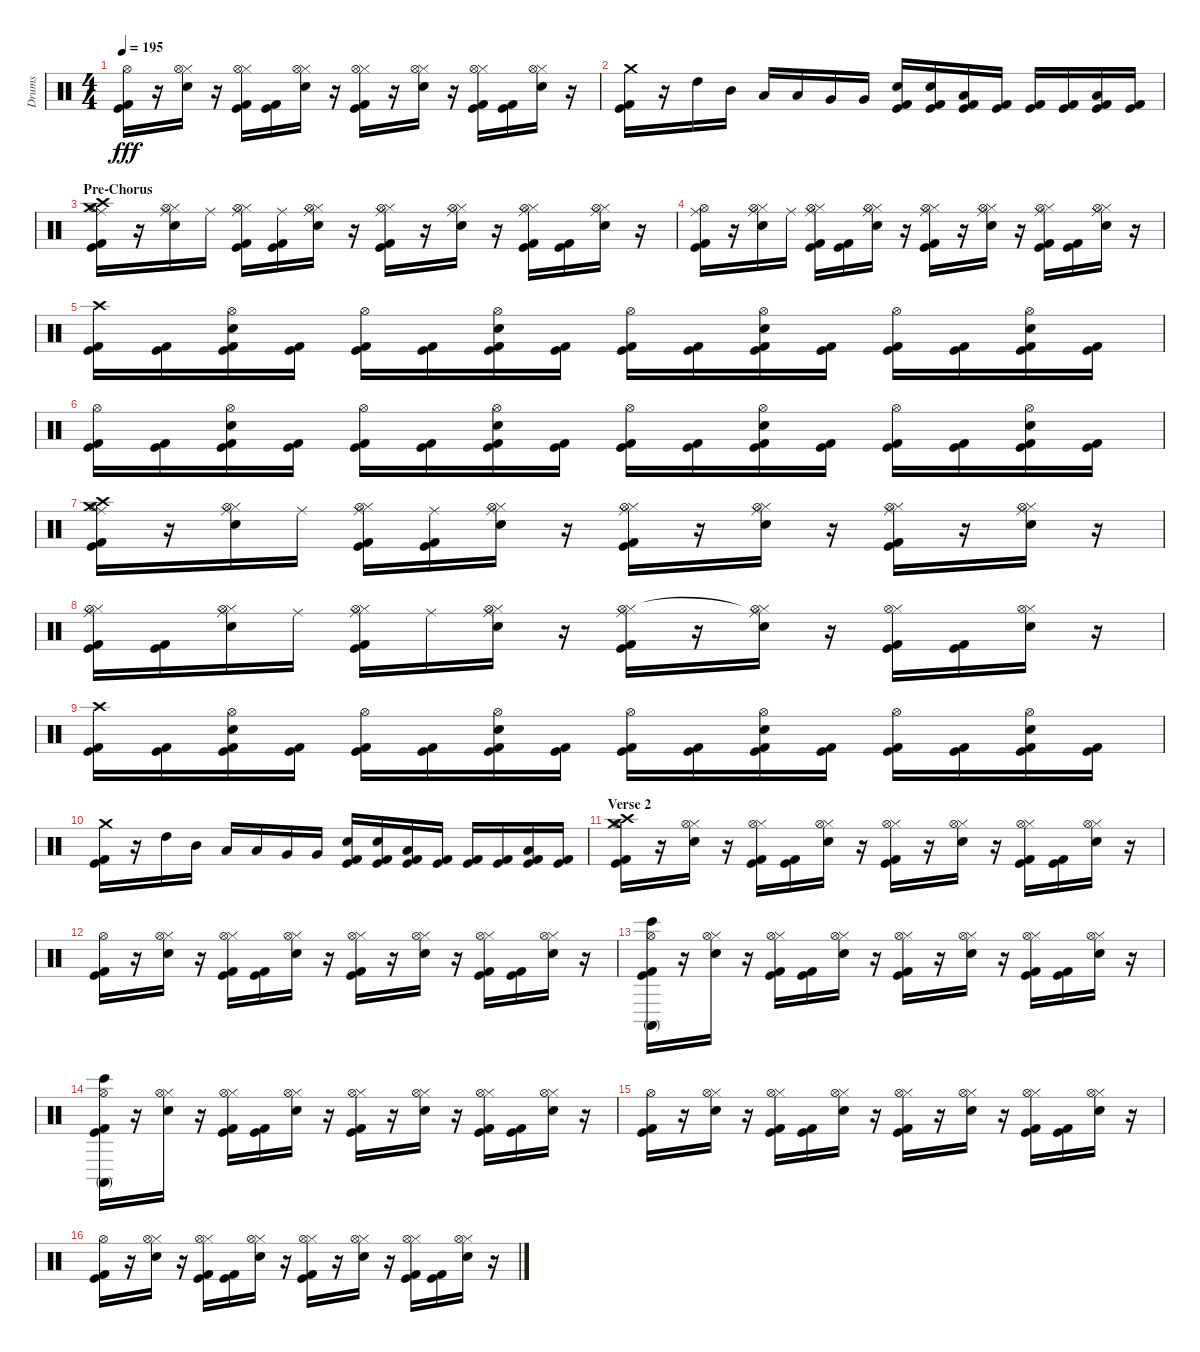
\track ("Drums" "Drums") {instrument percussion}
\staff {score}
\articulation defaults
\ts (4 4)
\tempo 195
\clef neutral
\ks c
("Kick (hit) 2" "Kick (hit)" "Hi-Hat (open)").16{dy fff} r.16 ("Snare (hit) 2" "Hi-Hat (closed)" "Hi-Hat (open)").16 r.16 ("Kick (hit) 2" "Kick (hit)" "Hi-Hat (closed)" "Hi-Hat (open)").16 ("Kick (hit) 2" "Kick (hit)").16 ("Snare (hit) 2" "Hi-Hat (closed)" "Hi-Hat (open)").16 r.16 ("Kick (hit) 2" "Kick (hit)" "Hi-Hat (closed)" "Hi-Hat (open)").16 r.16 ("Snare (hit) 2" "Hi-Hat (closed)" "Hi-Hat (open)").16 r.16 ("Kick (hit) 2" "Kick (hit)" "Hi-Hat (closed)" "Hi-Hat (open)").16 ("Kick (hit) 2" "Kick (hit)").16 ("Snare (hit) 2" "Hi-Hat (closed)" "Hi-Hat (open)").16 r.16 |
("Kick (hit) 2" "Kick (hit)" "Crash medium (hit)").16 r.16 "High Tom (hit)".16 "Mid Tom (hit)".16 "Low Tom (hit)".16 "Low Tom (hit)".16 "Very Low Tom (hit)".16 "Very Low Tom (hit)".16 ("Kick (hit) 2" "Kick (hit)" "Snare (hit) 2").16 ("Kick (hit) 2" "Kick (hit)" "Snare (hit) 2").16 ("Kick (hit) 2" "Kick (hit)" "Low Tom (hit)").16 ("Kick (hit) 2" "Kick (hit)").16 ("Kick (hit) 2" "Kick (hit)").16 ("Kick (hit) 2" "Kick (hit)").16 ("Kick (hit) 2" "Kick (hit)" "Low Floor Tom (hit)").16 ("Kick (hit) 2" "Kick (hit)").16 |
\section ("" "Pre-Chorus")
("Kick (hit) 2" "Kick (hit)" "Crash high (hit)" "Ride (middle)" "Hi-Hat (open)" "Crash medium (hit)").16 r.16 ("Snare (hit) 2" "Hi-Hat (closed)" "Ride (middle)" "Hi-Hat (open)").16 "Ride (middle)".16 ("Kick (hit) 2" "Kick (hit)" "Hi-Hat (closed)" "Ride (middle)" "Hi-Hat (open)").16 ("Kick (hit) 2" "Kick (hit)" "Ride (middle)").16 ("Snare (hit) 2" "Hi-Hat (closed)" "Ride (middle)" "Hi-Hat (open)").16 r.16 ("Kick (hit) 2" "Kick (hit)" "Hi-Hat (closed)" "Ride (middle)" "Hi-Hat (open)").16 r.16 ("Snare (hit) 2" "Hi-Hat (closed)" "Ride (middle)" "Hi-Hat (open)").16 r.16 ("Kick (hit) 2" "Kick (hit)" "Hi-Hat (closed)" "Ride (middle)" "Hi-Hat (open)").16 ("Kick (hit) 2" "Kick (hit)").16 ("Snare (hit) 2" "Hi-Hat (closed)" "Ride (middle)" "Hi-Hat (open)").16 r.16 |
("Kick (hit) 2" "Kick (hit)" "Ride (middle)" "Hi-Hat (open)").16 r.16 ("Snare (hit) 2" "Hi-Hat (closed)" "Ride (middle)" "Hi-Hat (open)").16 "Ride (middle)".16 ("Kick (hit) 2" "Kick (hit)" "Hi-Hat (closed)" "Ride (middle)" "Hi-Hat (open)").16 ("Kick (hit) 2" "Kick (hit)").16 ("Snare (hit) 2" "Hi-Hat (closed)" "Ride (middle)" "Hi-Hat (open)").16 r.16 ("Kick (hit) 2" "Kick (hit)" "Hi-Hat (closed)" "Ride (middle)" "Hi-Hat (open)").16 r.16 ("Snare (hit) 2" "Hi-Hat (closed)" "Ride (middle)" "Hi-Hat (open)").16 r.16 ("Kick (hit) 2" "Kick (hit)" "Hi-Hat (closed)" "Ride (middle)" "Hi-Hat (open)").16 ("Kick (hit) 2" "Kick (hit)").16 ("Snare (hit) 2" "Hi-Hat (closed)" "Ride (middle)" "Hi-Hat (open)").16 r.16 |
("Kick (hit) 2" "Kick (hit)" "Crash high (hit)").16 ("Kick (hit) 2" "Kick (hit)").16 ("Kick (hit) 2" "Kick (hit)" "Snare (hit) 2" "Hi-Hat (open)").16 ("Kick (hit) 2" "Kick (hit)").16 ("Kick (hit) 2" "Kick (hit)" "Hi-Hat (open)").16 ("Kick (hit) 2" "Kick (hit)").16 ("Kick (hit) 2" "Kick (hit)" "Snare (hit) 2" "Hi-Hat (open)").16 ("Kick (hit) 2" "Kick (hit)").16 ("Kick (hit) 2" "Kick (hit)" "Hi-Hat (open)").16 ("Kick (hit) 2" "Kick (hit)").16 ("Kick (hit) 2" "Kick (hit)" "Snare (hit) 2" "Hi-Hat (open)").16 ("Kick (hit) 2" "Kick (hit)").16 ("Kick (hit) 2" "Kick (hit)" "Hi-Hat (open)").16 ("Kick (hit) 2" "Kick (hit)").16 ("Kick (hit) 2" "Kick (hit)" "Snare (hit) 2" "Hi-Hat (open)").16 ("Kick (hit) 2" "Kick (hit)").16 |
("Kick (hit) 2" "Kick (hit)" "Hi-Hat (open)").16 ("Kick (hit) 2" "Kick (hit)").16 ("Kick (hit) 2" "Kick (hit)" "Snare (hit) 2" "Hi-Hat (open)").16 ("Kick (hit) 2" "Kick (hit)").16 ("Kick (hit) 2" "Kick (hit)" "Hi-Hat (open)").16 ("Kick (hit) 2" "Kick (hit)").16 ("Kick (hit) 2" "Kick (hit)" "Snare (hit) 2" "Hi-Hat (open)").16 ("Kick (hit) 2" "Kick (hit)").16 ("Kick (hit) 2" "Kick (hit)" "Hi-Hat (open)").16 ("Kick (hit) 2" "Kick (hit)").16 ("Kick (hit) 2" "Kick (hit)" "Snare (hit) 2" "Hi-Hat (open)").16 ("Kick (hit) 2" "Kick (hit)").16 ("Kick (hit) 2" "Kick (hit)" "Hi-Hat (open)").16 ("Kick (hit) 2" "Kick (hit)").16 ("Kick (hit) 2" "Kick (hit)" "Snare (hit) 2" "Hi-Hat (open)").16 ("Kick (hit) 2" "Kick (hit)").16 |
("Kick (hit) 2" "Kick (hit)" "Crash high (hit)" "Ride (middle)" "Hi-Hat (open)" "Crash medium (hit)").16 r.16 ("Snare (hit) 2" "Hi-Hat (closed)" "Ride (middle)" "Hi-Hat (open)").16 "Ride (middle)".16 ("Kick (hit) 2" "Kick (hit)" "Hi-Hat (closed)" "Ride (middle)" "Hi-Hat (open)").16 ("Kick (hit) 2" "Kick (hit)" "Ride (middle)").16 ("Snare (hit) 2" "Hi-Hat (closed)" "Ride (middle)" "Hi-Hat (open)").16 r.16 ("Kick (hit) 2" "Kick (hit)" "Hi-Hat (closed)" "Ride (middle)" "Hi-Hat (open)").16 r.16 ("Snare (hit) 2" "Hi-Hat (closed)" "Ride (middle)" "Hi-Hat (open)").16 r.16 ("Kick (hit) 2" "Kick (hit)" "Hi-Hat (closed)" "Ride (middle)" "Hi-Hat (open)").16 r.16 ("Snare (hit) 2" "Hi-Hat (closed)" "Ride (middle)" "Hi-Hat (open)").16 r.16 |
("Kick (hit) 2" "Kick (hit)" "Hi-Hat (closed)" "Ride (middle)" "Hi-Hat (open)").16 ("Kick (hit) 2" "Kick (hit)").16 ("Snare (hit) 2" "Hi-Hat (closed)" "Ride (middle)" "Hi-Hat (open)").16 "Ride (middle)".16 ("Kick (hit) 2" "Kick (hit)" "Hi-Hat (closed)" "Ride (middle)" "Hi-Hat (open)").16 "Ride (middle)".16 ("Snare (hit) 2" "Hi-Hat (closed)" "Ride (middle)" "Hi-Hat (open)").16 r.16 ("Kick (hit) 2" "Kick (hit)" "Hi-Hat (closed)" "Ride (middle)" "Hi-Hat (open)").16 r.16 ("Snare (hit) 2" "Hi-Hat (closed)" "Ride (middle)"{t} "Hi-Hat (open)").16 r.16 ("Kick (hit) 2" "Kick (hit)" "Hi-Hat (closed)" "Hi-Hat (open)").16 ("Kick (hit) 2" "Kick (hit)").16 ("Snare (hit) 2" "Hi-Hat (closed)" "Hi-Hat (open)").16 r.16 |
("Kick (hit) 2" "Kick (hit)" "Crash high (hit)").16 ("Kick (hit) 2" "Kick (hit)").16 ("Kick (hit) 2" "Kick (hit)" "Snare (hit) 2" "Hi-Hat (open)").16 ("Kick (hit) 2" "Kick (hit)").16 ("Kick (hit) 2" "Kick (hit)" "Hi-Hat (open)").16 ("Kick (hit) 2" "Kick (hit)").16 ("Kick (hit) 2" "Kick (hit)" "Snare (hit) 2" "Hi-Hat (open)").16 ("Kick (hit) 2" "Kick (hit)").16 ("Kick (hit) 2" "Kick (hit)" "Hi-Hat (open)").16 ("Kick (hit) 2" "Kick (hit)").16 ("Kick (hit) 2" "Kick (hit)" "Snare (hit) 2" "Hi-Hat (open)").16 ("Kick (hit) 2" "Kick (hit)").16 ("Kick (hit) 2" "Kick (hit)" "Hi-Hat (open)").16 ("Kick (hit) 2" "Kick (hit)").16 ("Kick (hit) 2" "Kick (hit)" "Snare (hit) 2" "Hi-Hat (open)").16 ("Kick (hit) 2" "Kick (hit)").16 |
("Kick (hit) 2" "Kick (hit)" "Crash medium (hit)").16 r.16 "High Tom (hit)".16 "Mid Tom (hit)".16 "Low Tom (hit)".16 "Low Tom (hit)".16 "Very Low Tom (hit)".16 "Very Low Tom (hit)".16 ("Kick (hit) 2" "Kick (hit)" "Snare (hit) 2").16 ("Kick (hit) 2" "Kick (hit)" "Snare (hit) 2").16 ("Kick (hit) 2" "Kick (hit)" "Low Tom (hit)").16 ("Kick (hit) 2" "Kick (hit)").16 ("Kick (hit) 2" "Kick (hit)").16 ("Kick (hit) 2" "Kick (hit)").16 ("Kick (hit) 2" "Kick (hit)" "Low Floor Tom (hit)").16 ("Kick (hit) 2" "Kick (hit)").16 |
\section ("" "Verse 2")
("Kick (hit) 2" "Kick (hit)" "Crash high (hit)" "Hi-Hat (open)" "Crash medium (hit)").16 r.16 ("Snare (hit) 2" "Hi-Hat (closed)" "Hi-Hat (open)").16 r.16 ("Kick (hit) 2" "Kick (hit)" "Hi-Hat (closed)" "Hi-Hat (open)").16 ("Kick (hit) 2" "Kick (hit)").16 ("Snare (hit) 2" "Hi-Hat (closed)" "Hi-Hat (open)").16 r.16 ("Kick (hit) 2" "Kick (hit)" "Hi-Hat (closed)" "Hi-Hat (open)").16 r.16 ("Snare (hit) 2" "Hi-Hat (closed)" "Hi-Hat (open)").16 r.16 ("Kick (hit) 2" "Kick (hit)" "Hi-Hat (closed)" "Hi-Hat (open)").16 ("Kick (hit) 2" "Kick (hit)").16 ("Snare (hit) 2" "Hi-Hat (closed)" "Hi-Hat (open)").16 r.16 |
("Kick (hit) 2" "Kick (hit)" "Hi-Hat (open)").16 r.16 ("Snare (hit) 2" "Hi-Hat (closed)" "Hi-Hat (open)").16 r.16 ("Kick (hit) 2" "Kick (hit)" "Hi-Hat (closed)" "Hi-Hat (open)").16 ("Kick (hit) 2" "Kick (hit)").16 ("Snare (hit) 2" "Hi-Hat (closed)" "Hi-Hat (open)").16 r.16 ("Kick (hit) 2" "Kick (hit)" "Hi-Hat (closed)" "Hi-Hat (open)").16 r.16 ("Snare (hit) 2" "Hi-Hat (closed)" "Hi-Hat (open)").16 r.16 ("Kick (hit) 2" "Kick (hit)" "Hi-Hat (closed)" "Hi-Hat (open)").16 ("Kick (hit) 2" "Kick (hit)").16 ("Snare (hit) 2" "Hi-Hat (closed)" "Hi-Hat (open)").16 r.16 |
("Kick (hit) 2" "Kick (hit)" "Conga high (mute)" "Bongo High (hit)" "Hi-Hat (open)").16 r.16 ("Snare (hit) 2" "Hi-Hat (closed)" "Hi-Hat (open)").16 r.16 ("Kick (hit) 2" "Kick (hit)" "Hi-Hat (closed)" "Hi-Hat (open)").16 ("Kick (hit) 2" "Kick (hit)").16 ("Snare (hit) 2" "Hi-Hat (closed)" "Hi-Hat (open)").16 r.16 ("Kick (hit) 2" "Kick (hit)" "Hi-Hat (closed)" "Hi-Hat (open)").16 r.16 ("Snare (hit) 2" "Hi-Hat (closed)" "Hi-Hat (open)").16 r.16 ("Kick (hit) 2" "Kick (hit)" "Hi-Hat (closed)" "Hi-Hat (open)").16 ("Kick (hit) 2" "Kick (hit)").16 ("Snare (hit) 2" "Hi-Hat (closed)" "Hi-Hat (open)").16 r.16 |
("Kick (hit) 2" "Kick (hit)" "Conga high (mute)" "Bongo High (hit)" "Hi-Hat (open)").16 r.16 ("Snare (hit) 2" "Hi-Hat (closed)" "Hi-Hat (open)").16 r.16 ("Kick (hit) 2" "Kick (hit)" "Hi-Hat (closed)" "Hi-Hat (open)").16 ("Kick (hit) 2" "Kick (hit)").16 ("Snare (hit) 2" "Hi-Hat (closed)" "Hi-Hat (open)").16 r.16 ("Kick (hit) 2" "Kick (hit)" "Hi-Hat (closed)" "Hi-Hat (open)").16 r.16 ("Snare (hit) 2" "Hi-Hat (closed)" "Hi-Hat (open)").16 r.16 ("Kick (hit) 2" "Kick (hit)" "Hi-Hat (closed)" "Hi-Hat (open)").16 ("Kick (hit) 2" "Kick (hit)").16 ("Snare (hit) 2" "Hi-Hat (closed)" "Hi-Hat (open)").16 r.16 |
("Kick (hit) 2" "Kick (hit)" "Hi-Hat (open)").16 r.16 ("Snare (hit) 2" "Hi-Hat (closed)" "Hi-Hat (open)").16 r.16 ("Kick (hit) 2" "Kick (hit)" "Hi-Hat (closed)" "Hi-Hat (open)").16 ("Kick (hit) 2" "Kick (hit)").16 ("Snare (hit) 2" "Hi-Hat (closed)" "Hi-Hat (open)").16 r.16 ("Kick (hit) 2" "Kick (hit)" "Hi-Hat (closed)" "Hi-Hat (open)").16 r.16 ("Snare (hit) 2" "Hi-Hat (closed)" "Hi-Hat (open)").16 r.16 ("Kick (hit) 2" "Kick (hit)" "Hi-Hat (closed)" "Hi-Hat (open)").16 ("Kick (hit) 2" "Kick (hit)").16 ("Snare (hit) 2" "Hi-Hat (closed)" "Hi-Hat (open)").16 r.16 |
("Kick (hit) 2" "Kick (hit)" "Hi-Hat (open)").16 r.16 ("Snare (hit) 2" "Hi-Hat (closed)" "Hi-Hat (open)").16 r.16 ("Kick (hit) 2" "Kick (hit)" "Hi-Hat (closed)" "Hi-Hat (open)").16 ("Kick (hit) 2" "Kick (hit)").16 ("Snare (hit) 2" "Hi-Hat (closed)" "Hi-Hat (open)").16 r.16 ("Kick (hit) 2" "Kick (hit)" "Hi-Hat (closed)" "Hi-Hat (open)").16 r.16 ("Snare (hit) 2" "Hi-Hat (closed)" "Hi-Hat (open)").16 r.16 ("Kick (hit) 2" "Kick (hit)" "Hi-Hat (closed)" "Hi-Hat (open)").16 ("Kick (hit) 2" "Kick (hit)").16 ("Snare (hit) 2" "Hi-Hat (closed)" "Hi-Hat (open)").16 r.16
